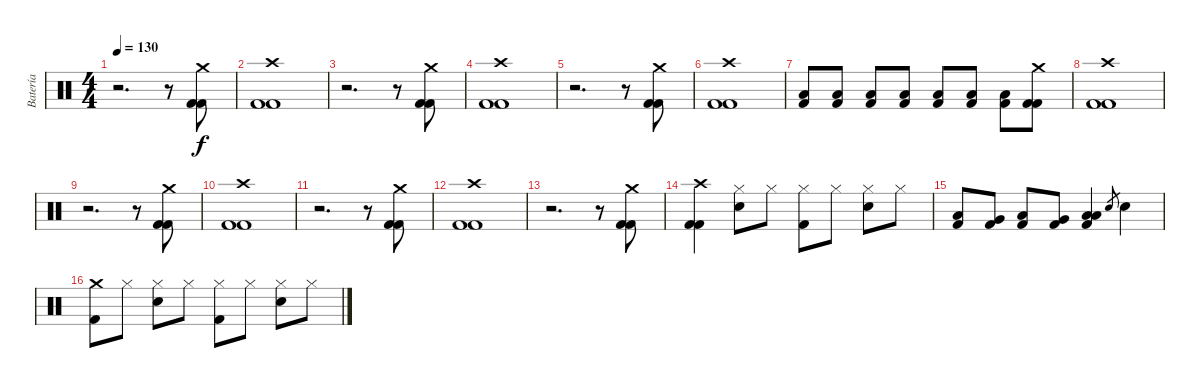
\track ("Batería" "Batería") {instrument percussion}
\staff {score}
\articulation defaults
\ts (4 4)
\tempo 130
\clef neutral
\ks c
r.2{d dy f} r.8 ("Crash medium (hit)" "Kick (hit) 2" "Kick (hit) 2").8 |
("Crash high (hit)" "Kick (hit) 2" "Kick (hit) 2").1 |
r.2{d} r.8 ("Crash medium (hit)" "Kick (hit) 2" "Kick (hit) 2").8 |
("Crash high (hit)" "Kick (hit) 2" "Kick (hit) 2").1 |
r.2{d} r.8 ("Crash medium (hit)" "Kick (hit) 2" "Kick (hit) 2").8 |
("Crash high (hit)" "Kick (hit) 2" "Kick (hit) 2").1 |
("Low Tom (hit)" "Kick (hit) 2").8 ("Low Tom (hit)" "Kick (hit) 2").8 ("Low Tom (hit)" "Kick (hit) 2").8 ("Low Tom (hit)" "Kick (hit) 2").8 ("Low Tom (hit)" "Kick (hit) 2").8 ("Low Tom (hit)" "Kick (hit) 2").8 ("Low Tom (hit)" "Kick (hit) 2").8 ("Crash medium (hit)" "Kick (hit) 2" "Kick (hit) 2").8 |
("Crash high (hit)" "Kick (hit) 2" "Kick (hit) 2").1 |
r.2{d} r.8 ("Crash medium (hit)" "Kick (hit) 2" "Kick (hit) 2").8 |
("Crash high (hit)" "Kick (hit) 2" "Kick (hit) 2").1 |
r.2{d} r.8 ("Crash medium (hit)" "Kick (hit) 2" "Kick (hit) 2").8 |
("Crash high (hit)" "Kick (hit) 2" "Kick (hit) 2").1 |
r.2{d} r.8 ("Crash medium (hit)" "Kick (hit) 2" "Kick (hit) 2").8 |
("Crash high (hit)" "Kick (hit) 2" "Kick (hit) 2").4 ("Hi-Hat (closed)" "Snare (hit) 2").8 "Hi-Hat (closed)".8 ("Hi-Hat (closed)" "Kick (hit) 2").8 "Hi-Hat (closed)".8 ("Hi-Hat (closed)" "Snare (hit) 2").8 "Hi-Hat (closed)".8 |
("Low Tom (hit)" "Kick (hit) 2").8 ("Very Low Tom (hit)" "Kick (hit) 2").8 ("Low Tom (hit)" "Kick (hit) 2").8 ("Very Low Tom (hit)" "Kick (hit) 2").8 ("Low Tom (hit)" "Low Tom (hit)" "Kick (hit) 2").4 "Snare (hit) 2".8{gr} "Snare (hit) 2".4 |
("Crash medium (hit)" "Kick (hit) 2").8 "Hi-Hat (closed)".8 ("Hi-Hat (closed)" "Snare (hit) 2").8 "Hi-Hat (closed)".8 ("Hi-Hat (closed)" "Kick (hit) 2").8 "Hi-Hat (closed)".8 ("Hi-Hat (closed)" "Snare (hit) 2").8 "Hi-Hat (closed)".8
